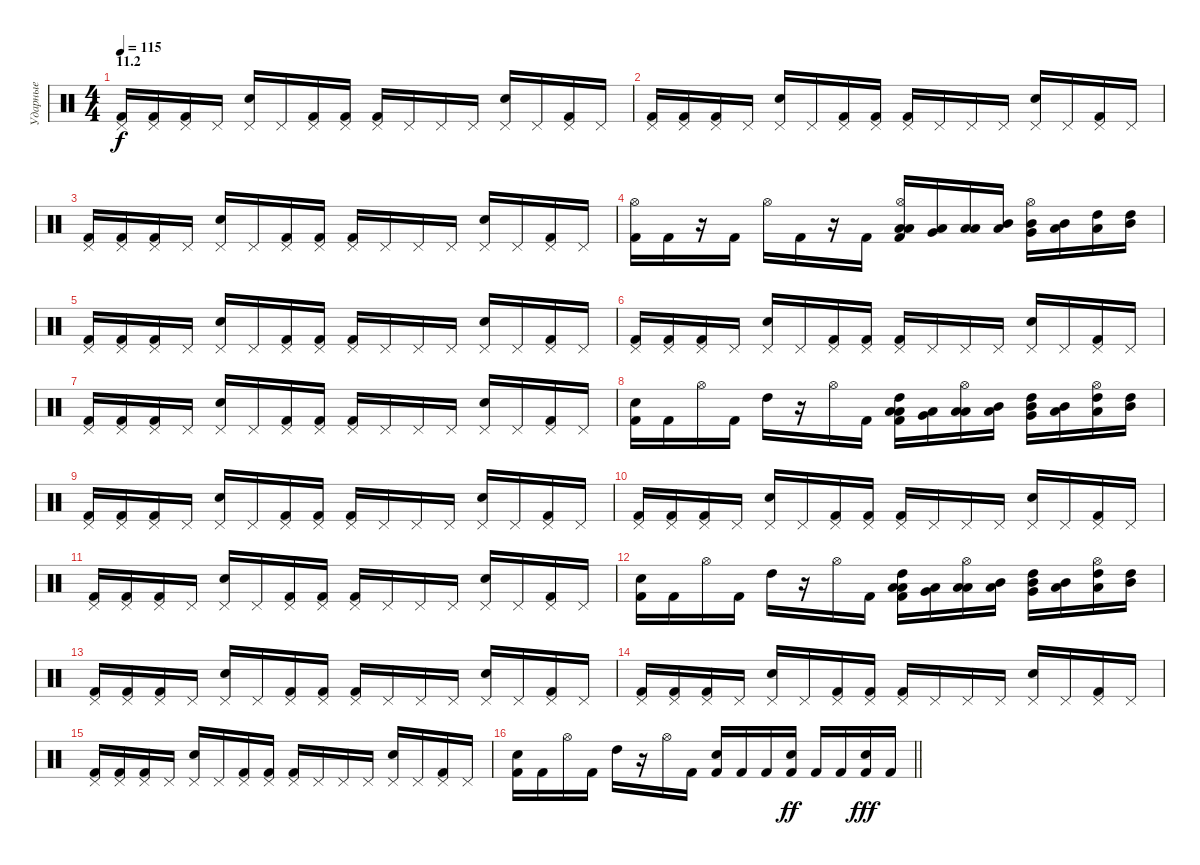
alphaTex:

\track ("Ударные" "Ударные") {instrument percussion}
\staff {score}
\articulation defaults
\ts (4 4)
\section ("" "11.2")
\tempo 115
\clef neutral
\ks c
("Pedal Hi-Hat (hit)" "Kick (hit) 2").16{dy f} ("Pedal Hi-Hat (hit)" "Kick (hit) 2").16 ("Pedal Hi-Hat (hit)" "Kick (hit) 2").16 "Pedal Hi-Hat (hit)".16 ("Pedal Hi-Hat (hit)" "Snare (hit) 2").16 "Pedal Hi-Hat (hit)".16 ("Pedal Hi-Hat (hit)" "Kick (hit) 2").16 ("Pedal Hi-Hat (hit)" "Kick (hit) 2").16 ("Pedal Hi-Hat (hit)" "Kick (hit) 2").16 "Pedal Hi-Hat (hit)".16 "Pedal Hi-Hat (hit)".16 "Pedal Hi-Hat (hit)".16 ("Pedal Hi-Hat (hit)" "Snare (hit) 2").16 "Pedal Hi-Hat (hit)".16 ("Pedal Hi-Hat (hit)" "Kick (hit) 2").16 "Pedal Hi-Hat (hit)".16 |
("Pedal Hi-Hat (hit)" "Kick (hit) 2").16 ("Pedal Hi-Hat (hit)" "Kick (hit) 2").16 ("Pedal Hi-Hat (hit)" "Kick (hit) 2").16 "Pedal Hi-Hat (hit)".16 ("Pedal Hi-Hat (hit)" "Snare (hit) 2").16 "Pedal Hi-Hat (hit)".16 ("Pedal Hi-Hat (hit)" "Kick (hit) 2").16 ("Pedal Hi-Hat (hit)" "Kick (hit) 2").16 ("Pedal Hi-Hat (hit)" "Kick (hit) 2").16 "Pedal Hi-Hat (hit)".16 "Pedal Hi-Hat (hit)".16 "Pedal Hi-Hat (hit)".16 ("Pedal Hi-Hat (hit)" "Snare (hit) 2").16 "Pedal Hi-Hat (hit)".16 ("Pedal Hi-Hat (hit)" "Kick (hit) 2").16 "Pedal Hi-Hat (hit)".16 |
("Pedal Hi-Hat (hit)" "Kick (hit) 2").16 ("Pedal Hi-Hat (hit)" "Kick (hit) 2").16 ("Pedal Hi-Hat (hit)" "Kick (hit) 2").16 "Pedal Hi-Hat (hit)".16 ("Pedal Hi-Hat (hit)" "Snare (hit) 2").16 "Pedal Hi-Hat (hit)".16 ("Pedal Hi-Hat (hit)" "Kick (hit) 2").16 ("Pedal Hi-Hat (hit)" "Kick (hit) 2").16 ("Pedal Hi-Hat (hit)" "Kick (hit) 2").16 "Pedal Hi-Hat (hit)".16 "Pedal Hi-Hat (hit)".16 "Pedal Hi-Hat (hit)".16 ("Pedal Hi-Hat (hit)" "Snare (hit) 2").16 "Pedal Hi-Hat (hit)".16 ("Pedal Hi-Hat (hit)" "Kick (hit) 2").16 "Pedal Hi-Hat (hit)".16 |
("Hi-Hat (open)" "Kick (hit) 2").16 "Kick (hit) 2".16 r.16 "Kick (hit) 2".16 "Hi-Hat (open)".16 "Kick (hit) 2".16 r.16 "Kick (hit) 2".16 ("Hi-Hat (open)" "Low Floor Tom (hit)" "Low Floor Tom (hit)" "Kick (hit) 2").16 ("Very Low Tom (hit)" "Low Floor Tom (hit)").16 ("Low Tom (hit)" "Low Floor Tom (hit)").16 ("Mid Tom (hit)" "Low Floor Tom (hit)").16 ("Hi-Hat (open)" "Mid Tom (hit)" "Very Low Tom (hit)").16 ("Mid Tom (hit)" "Low Tom (hit)").16 ("High Tom (hit)" "Low Tom (hit)").16 ("High Tom (hit)" "Mid Tom (hit)").16 |
("Pedal Hi-Hat (hit)" "Kick (hit) 2").16 ("Pedal Hi-Hat (hit)" "Kick (hit) 2").16 ("Pedal Hi-Hat (hit)" "Kick (hit) 2").16 "Pedal Hi-Hat (hit)".16 ("Pedal Hi-Hat (hit)" "Snare (hit) 2").16 "Pedal Hi-Hat (hit)".16 ("Pedal Hi-Hat (hit)" "Kick (hit) 2").16 ("Pedal Hi-Hat (hit)" "Kick (hit) 2").16 ("Pedal Hi-Hat (hit)" "Kick (hit) 2").16 "Pedal Hi-Hat (hit)".16 "Pedal Hi-Hat (hit)".16 "Pedal Hi-Hat (hit)".16 ("Pedal Hi-Hat (hit)" "Snare (hit) 2").16 "Pedal Hi-Hat (hit)".16 ("Pedal Hi-Hat (hit)" "Kick (hit) 2").16 "Pedal Hi-Hat (hit)".16 |
("Pedal Hi-Hat (hit)" "Kick (hit) 2").16 ("Pedal Hi-Hat (hit)" "Kick (hit) 2").16 ("Pedal Hi-Hat (hit)" "Kick (hit) 2").16 "Pedal Hi-Hat (hit)".16 ("Pedal Hi-Hat (hit)" "Snare (hit) 2").16 "Pedal Hi-Hat (hit)".16 ("Pedal Hi-Hat (hit)" "Kick (hit) 2").16 ("Pedal Hi-Hat (hit)" "Kick (hit) 2").16 ("Pedal Hi-Hat (hit)" "Kick (hit) 2").16 "Pedal Hi-Hat (hit)".16 "Pedal Hi-Hat (hit)".16 "Pedal Hi-Hat (hit)".16 ("Pedal Hi-Hat (hit)" "Snare (hit) 2").16 "Pedal Hi-Hat (hit)".16 ("Pedal Hi-Hat (hit)" "Kick (hit) 2").16 "Pedal Hi-Hat (hit)".16 |
("Pedal Hi-Hat (hit)" "Kick (hit) 2").16 ("Pedal Hi-Hat (hit)" "Kick (hit) 2").16 ("Pedal Hi-Hat (hit)" "Kick (hit) 2").16 "Pedal Hi-Hat (hit)".16 ("Pedal Hi-Hat (hit)" "Snare (hit) 2").16 "Pedal Hi-Hat (hit)".16 ("Pedal Hi-Hat (hit)" "Kick (hit) 2").16 ("Pedal Hi-Hat (hit)" "Kick (hit) 2").16 ("Pedal Hi-Hat (hit)" "Kick (hit) 2").16 "Pedal Hi-Hat (hit)".16 "Pedal Hi-Hat (hit)".16 "Pedal Hi-Hat (hit)".16 ("Pedal Hi-Hat (hit)" "Snare (hit) 2").16 "Pedal Hi-Hat (hit)".16 ("Pedal Hi-Hat (hit)" "Kick (hit) 2").16 "Pedal Hi-Hat (hit)".16 |
("Snare (hit) 2" "Kick (hit) 2").16 "Kick (hit) 2".16 "Hi-Hat (open)".16 "Kick (hit) 2".16 "High Tom (hit)".16 r.16 "Hi-Hat (open)".16 "Kick (hit) 2".16 ("High Tom (hit)" "Low Floor Tom (hit)" "Low Floor Tom (hit)" "Kick (hit) 2").16 ("Very Low Tom (hit)" "Low Floor Tom (hit)").16 ("Hi-Hat (open)" "Low Tom (hit)" "Low Floor Tom (hit)").16 ("Mid Tom (hit)" "Low Floor Tom (hit)").16 ("High Tom (hit)" "Mid Tom (hit)" "Very Low Tom (hit)").16 ("Mid Tom (hit)" "Low Tom (hit)").16 ("Hi-Hat (open)" "High Tom (hit)" "Low Tom (hit)").16 ("High Tom (hit)" "Mid Tom (hit)").16 |
("Pedal Hi-Hat (hit)" "Kick (hit) 2").16 ("Pedal Hi-Hat (hit)" "Kick (hit) 2").16 ("Pedal Hi-Hat (hit)" "Kick (hit) 2").16 "Pedal Hi-Hat (hit)".16 ("Pedal Hi-Hat (hit)" "Snare (hit) 2").16 "Pedal Hi-Hat (hit)".16 ("Pedal Hi-Hat (hit)" "Kick (hit) 2").16 ("Pedal Hi-Hat (hit)" "Kick (hit) 2").16 ("Pedal Hi-Hat (hit)" "Kick (hit) 2").16 "Pedal Hi-Hat (hit)".16 "Pedal Hi-Hat (hit)".16 "Pedal Hi-Hat (hit)".16 ("Pedal Hi-Hat (hit)" "Snare (hit) 2").16 "Pedal Hi-Hat (hit)".16 ("Pedal Hi-Hat (hit)" "Kick (hit) 2").16 "Pedal Hi-Hat (hit)".16 |
("Pedal Hi-Hat (hit)" "Kick (hit) 2").16 ("Pedal Hi-Hat (hit)" "Kick (hit) 2").16 ("Pedal Hi-Hat (hit)" "Kick (hit) 2").16 "Pedal Hi-Hat (hit)".16 ("Pedal Hi-Hat (hit)" "Snare (hit) 2").16 "Pedal Hi-Hat (hit)".16 ("Pedal Hi-Hat (hit)" "Kick (hit) 2").16 ("Pedal Hi-Hat (hit)" "Kick (hit) 2").16 ("Pedal Hi-Hat (hit)" "Kick (hit) 2").16 "Pedal Hi-Hat (hit)".16 "Pedal Hi-Hat (hit)".16 "Pedal Hi-Hat (hit)".16 ("Pedal Hi-Hat (hit)" "Snare (hit) 2").16 "Pedal Hi-Hat (hit)".16 ("Pedal Hi-Hat (hit)" "Kick (hit) 2").16 "Pedal Hi-Hat (hit)".16 |
("Pedal Hi-Hat (hit)" "Kick (hit) 2").16 ("Pedal Hi-Hat (hit)" "Kick (hit) 2").16 ("Pedal Hi-Hat (hit)" "Kick (hit) 2").16 "Pedal Hi-Hat (hit)".16 ("Pedal Hi-Hat (hit)" "Snare (hit) 2").16 "Pedal Hi-Hat (hit)".16 ("Pedal Hi-Hat (hit)" "Kick (hit) 2").16 ("Pedal Hi-Hat (hit)" "Kick (hit) 2").16 ("Pedal Hi-Hat (hit)" "Kick (hit) 2").16 "Pedal Hi-Hat (hit)".16 "Pedal Hi-Hat (hit)".16 "Pedal Hi-Hat (hit)".16 ("Pedal Hi-Hat (hit)" "Snare (hit) 2").16 "Pedal Hi-Hat (hit)".16 ("Pedal Hi-Hat (hit)" "Kick (hit) 2").16 "Pedal Hi-Hat (hit)".16 |
("Snare (hit) 2" "Kick (hit) 2").16 "Kick (hit) 2".16 "Hi-Hat (open)".16 "Kick (hit) 2".16 "High Tom (hit)".16 r.16 "Hi-Hat (open)".16 "Kick (hit) 2".16 ("High Tom (hit)" "Low Floor Tom (hit)" "Low Floor Tom (hit)" "Kick (hit) 2").16 ("Very Low Tom (hit)" "Low Floor Tom (hit)").16 ("Hi-Hat (open)" "Low Tom (hit)" "Low Floor Tom (hit)").16 ("Mid Tom (hit)" "Low Floor Tom (hit)").16 ("High Tom (hit)" "Mid Tom (hit)" "Very Low Tom (hit)").16 ("Mid Tom (hit)" "Low Tom (hit)").16 ("Hi-Hat (open)" "High Tom (hit)" "Low Tom (hit)").16 ("High Tom (hit)" "Mid Tom (hit)").16 |
("Pedal Hi-Hat (hit)" "Kick (hit) 2").16 ("Pedal Hi-Hat (hit)" "Kick (hit) 2").16 ("Pedal Hi-Hat (hit)" "Kick (hit) 2").16 "Pedal Hi-Hat (hit)".16 ("Pedal Hi-Hat (hit)" "Snare (hit) 2").16 "Pedal Hi-Hat (hit)".16 ("Pedal Hi-Hat (hit)" "Kick (hit) 2").16 ("Pedal Hi-Hat (hit)" "Kick (hit) 2").16 ("Pedal Hi-Hat (hit)" "Kick (hit) 2").16 "Pedal Hi-Hat (hit)".16 "Pedal Hi-Hat (hit)".16 "Pedal Hi-Hat (hit)".16 ("Pedal Hi-Hat (hit)" "Snare (hit) 2").16 "Pedal Hi-Hat (hit)".16 ("Pedal Hi-Hat (hit)" "Kick (hit) 2").16 "Pedal Hi-Hat (hit)".16 |
("Pedal Hi-Hat (hit)" "Kick (hit) 2").16 ("Pedal Hi-Hat (hit)" "Kick (hit) 2").16 ("Pedal Hi-Hat (hit)" "Kick (hit) 2").16 "Pedal Hi-Hat (hit)".16 ("Pedal Hi-Hat (hit)" "Snare (hit) 2").16 "Pedal Hi-Hat (hit)".16 ("Pedal Hi-Hat (hit)" "Kick (hit) 2").16 ("Pedal Hi-Hat (hit)" "Kick (hit) 2").16 ("Pedal Hi-Hat (hit)" "Kick (hit) 2").16 "Pedal Hi-Hat (hit)".16 "Pedal Hi-Hat (hit)".16 "Pedal Hi-Hat (hit)".16 ("Pedal Hi-Hat (hit)" "Snare (hit) 2").16 "Pedal Hi-Hat (hit)".16 ("Pedal Hi-Hat (hit)" "Kick (hit) 2").16 "Pedal Hi-Hat (hit)".16 |
("Pedal Hi-Hat (hit)" "Kick (hit) 2").16 ("Pedal Hi-Hat (hit)" "Kick (hit) 2").16 ("Pedal Hi-Hat (hit)" "Kick (hit) 2").16 "Pedal Hi-Hat (hit)".16 ("Pedal Hi-Hat (hit)" "Snare (hit) 2").16 "Pedal Hi-Hat (hit)".16 ("Pedal Hi-Hat (hit)" "Kick (hit) 2").16 ("Pedal Hi-Hat (hit)" "Kick (hit) 2").16 ("Pedal Hi-Hat (hit)" "Kick (hit) 2").16 "Pedal Hi-Hat (hit)".16 "Pedal Hi-Hat (hit)".16 "Pedal Hi-Hat (hit)".16 ("Pedal Hi-Hat (hit)" "Snare (hit) 2").16 "Pedal Hi-Hat (hit)".16 ("Pedal Hi-Hat (hit)" "Kick (hit) 2").16 "Pedal Hi-Hat (hit)".16 |
\barLineRight lightlight
("Snare (hit) 2" "Kick (hit) 2").16 "Kick (hit) 2".16 "Hi-Hat (open)".16 "Kick (hit) 2".16 "High Tom (hit)".16 r.16 "Hi-Hat (open)".16 "Kick (hit) 2".16 ("Snare (hit) 2" "Kick (hit) 2").16 "Kick (hit) 2".16 "Kick (hit) 2".16 ("Snare (hit) 2" "Kick (hit) 2").16{dy ff} "Kick (hit) 2".16 "Kick (hit) 2".16 ("Snare (hit) 2" "Kick (hit) 2").16{dy fff} "Kick (hit) 2".16
